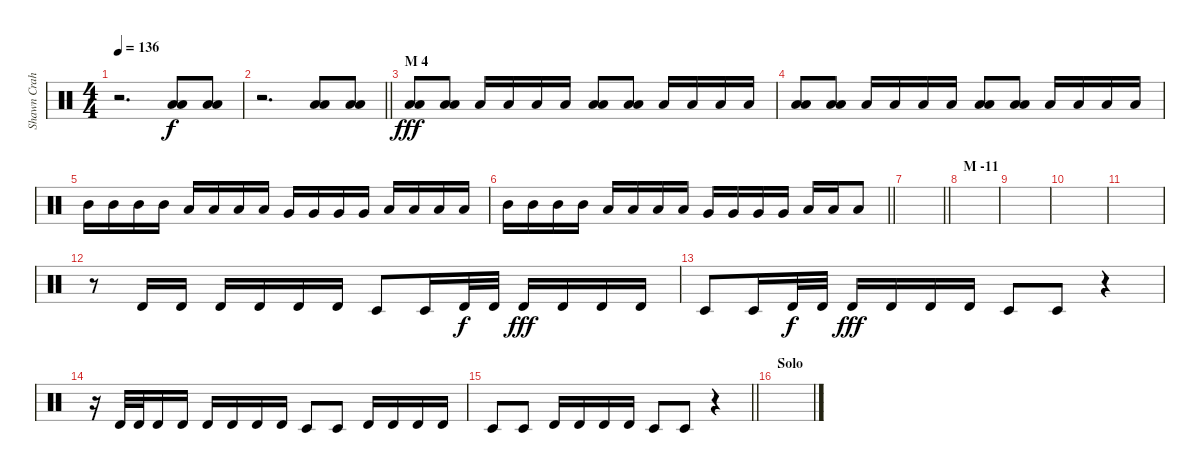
\track ("Shawn Crahan" "Shawn Crah") {instrument percussion}
\staff {score}
\articulation defaults
\ts (4 4)
\tempo 136
\clef neutral
\ks c
r.2{d dy f} ("Low Floor Tom (hit)" "Low Floor Tom (hit)").8 ("Low Floor Tom (hit)" "Low Floor Tom (hit)").8 |
\barLineRight lightlight
r.2{d} ("Low Floor Tom (hit)" "Low Floor Tom (hit)").8 ("Low Floor Tom (hit)" "Low Floor Tom (hit)").8 |
\section ("" "M 4")
("Low Floor Tom (hit)" "Low Floor Tom (hit)").8{dy fff} ("Low Floor Tom (hit)" "Low Floor Tom (hit)").8 "Low Floor Tom (hit)".16 "Low Floor Tom (hit)".16 "Low Floor Tom (hit)".16 "Low Floor Tom (hit)".16 ("Low Floor Tom (hit)" "Low Floor Tom (hit)").8 ("Low Floor Tom (hit)" "Low Floor Tom (hit)").8 "Low Floor Tom (hit)".16 "Low Floor Tom (hit)".16 "Low Floor Tom (hit)".16 "Low Floor Tom (hit)".16 |
("Low Floor Tom (hit)" "Low Floor Tom (hit)").8 ("Low Floor Tom (hit)" "Low Floor Tom (hit)").8 "Low Floor Tom (hit)".16 "Low Floor Tom (hit)".16 "Low Floor Tom (hit)".16 "Low Floor Tom (hit)".16 ("Low Floor Tom (hit)" "Low Floor Tom (hit)").8 ("Low Floor Tom (hit)" "Low Floor Tom (hit)").8 "Low Floor Tom (hit)".16 "Low Floor Tom (hit)".16 "Low Floor Tom (hit)".16 "Low Floor Tom (hit)".16 |
"Mid Tom (hit)".16 "Mid Tom (hit)".16 "Mid Tom (hit)".16 "Mid Tom (hit)".16 "Low Tom (hit)".16 "Low Tom (hit)".16 "Low Tom (hit)".16 "Low Tom (hit)".16 "Very Low Tom (hit)".16 "Very Low Tom (hit)".16 "Very Low Tom (hit)".16 "Very Low Tom (hit)".16 "Low Floor Tom (hit)".16 "Low Floor Tom (hit)".16 "Low Floor Tom (hit)".16 "Low Floor Tom (hit)".16 |
\barLineRight lightlight "Mid Tom (hit)".16 "Mid Tom (hit)".16 "Mid Tom (hit)".16 "Mid Tom (hit)".16 "Low Tom (hit)".16 "Low Tom (hit)".16 "Low Tom (hit)".16 "Low Tom (hit)".16 "Very Low Tom (hit)".16 "Very Low Tom (hit)".16 "Very Low Tom (hit)".16 "Very Low Tom (hit)".16 "Low Floor Tom (hit)".16 "Low Floor Tom (hit)".16 "Low Floor Tom (hit)".8
|
\barLineRight lightlight
|
\section ("" "M -11")
|
|
|
|
r.8 "Timbale high (hit)".16 "Timbale high (hit)".16 "Timbale high (hit)".16 "Timbale high (hit)".16 "Timbale high (hit)".16 "Timbale high (hit)".16 "Timbale low (hit)".8 "Timbale low (hit)".16 "Timbale high (hit)".32{dy f} "Timbale high (hit)".32 "Timbale high (hit)".16{dy fff} "Timbale high (hit)".16 "Timbale high (hit)".16 "Timbale high (hit)".16 |
"Timbale low (hit)".8 "Timbale low (hit)".16 "Timbale high (hit)".32{dy f} "Timbale high (hit)".32 "Timbale high (hit)".16{dy fff} "Timbale high (hit)".16 "Timbale high (hit)".16 "Timbale high (hit)".16 "Timbale low (hit)".8 "Timbale low (hit)".8 r.4 |
r.16 "Timbale high (hit)".32 "Timbale high (hit)".32 "Timbale high (hit)".16 "Timbale high (hit)".16 "Timbale high (hit)".16 "Timbale high (hit)".16 "Timbale high (hit)".16 "Timbale high (hit)".16 "Timbale low (hit)".8 "Timbale low (hit)".8 "Timbale high (hit)".16 "Timbale high (hit)".16 "Timbale high (hit)".16 "Timbale high (hit)".16 |
\barLineRight lightlight "Timbale low (hit)".8 "Timbale low (hit)".8 "Timbale high (hit)".16 "Timbale high (hit)".16 "Timbale high (hit)".16 "Timbale high (hit)".16 "Timbale low (hit)".8 "Timbale low (hit)".8
r.4 |
\section ("" "Solo")
